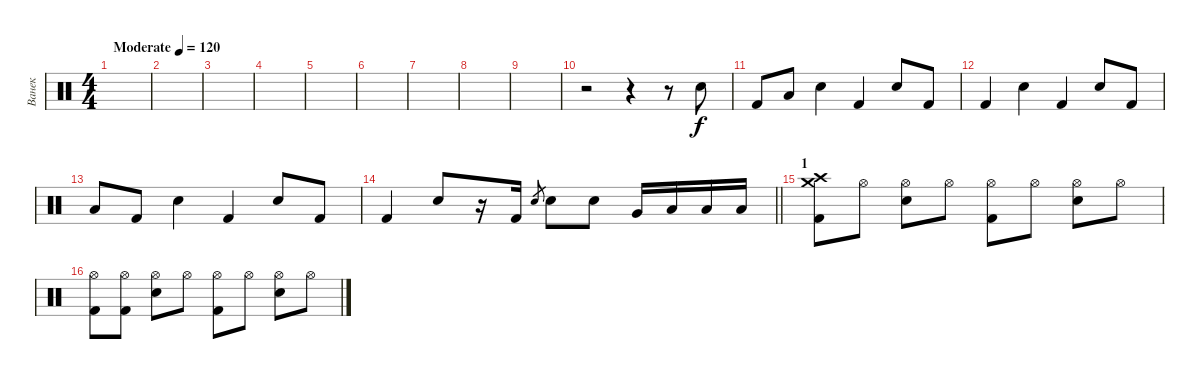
\track ("Ванек" "Ванек") {instrument percussion}
\staff {score}
\articulation defaults
\ts (4 4)
\tempo (120 "Moderate")
\clef neutral
\ks c
|
|
|
|
|
|
|
|
|
r.2 r.4 r.8 "Electric Snare (hit)".8 |
"Kick (hit) 2".8 "Low Floor Tom (hit)".8 "Electric Snare (hit)".4 "Kick (hit) 2".4 "Electric Snare (hit)".8 "Kick (hit) 2".8 |
"Kick (hit) 2".4 "Electric Snare (hit)".4 "Kick (hit) 2".4 "Electric Snare (hit)".8 "Kick (hit) 2".8 |
"Low Floor Tom (hit)".8 "Kick (hit) 2".8 "Electric Snare (hit)".4 "Kick (hit) 2".4 "Electric Snare (hit)".8 "Kick (hit) 2".8 |
\barLineRight lightlight "Kick (hit) 2".4 "Electric Snare (hit)".8
r.16 "Kick (hit) 2".16 "Electric Snare (hit)".8{gr} "Electric Snare (hit)".8 "Electric Snare (hit)".8 "Very Low Tom (hit)".16 "Low Floor Tom (hit)".16 "Low Tom (hit)".16 "Low Tom (hit)".16 |
\section ("" "1")
("Crash high (hit)" "Crash medium (hit)" "Kick (hit) 2").8 "Hi-Hat (open)".8 ("Hi-Hat (open)" "Electric Snare (hit)").8 "Hi-Hat (open)".8 ("Hi-Hat (open)" "Kick (hit) 2").8 "Hi-Hat (open)".8 ("Hi-Hat (open)" "Electric Snare (hit)").8 "Hi-Hat (open)".8 |
("Hi-Hat (open)" "Kick (hit) 2").8 ("Hi-Hat (open)" "Kick (hit) 2").8 ("Hi-Hat (open)" "Electric Snare (hit)").8 "Hi-Hat (open)".8 ("Hi-Hat (open)" "Kick (hit) 2").8 "Hi-Hat (open)".8 ("Hi-Hat (open)" "Electric Snare (hit)").8 "Hi-Hat (open)".8
